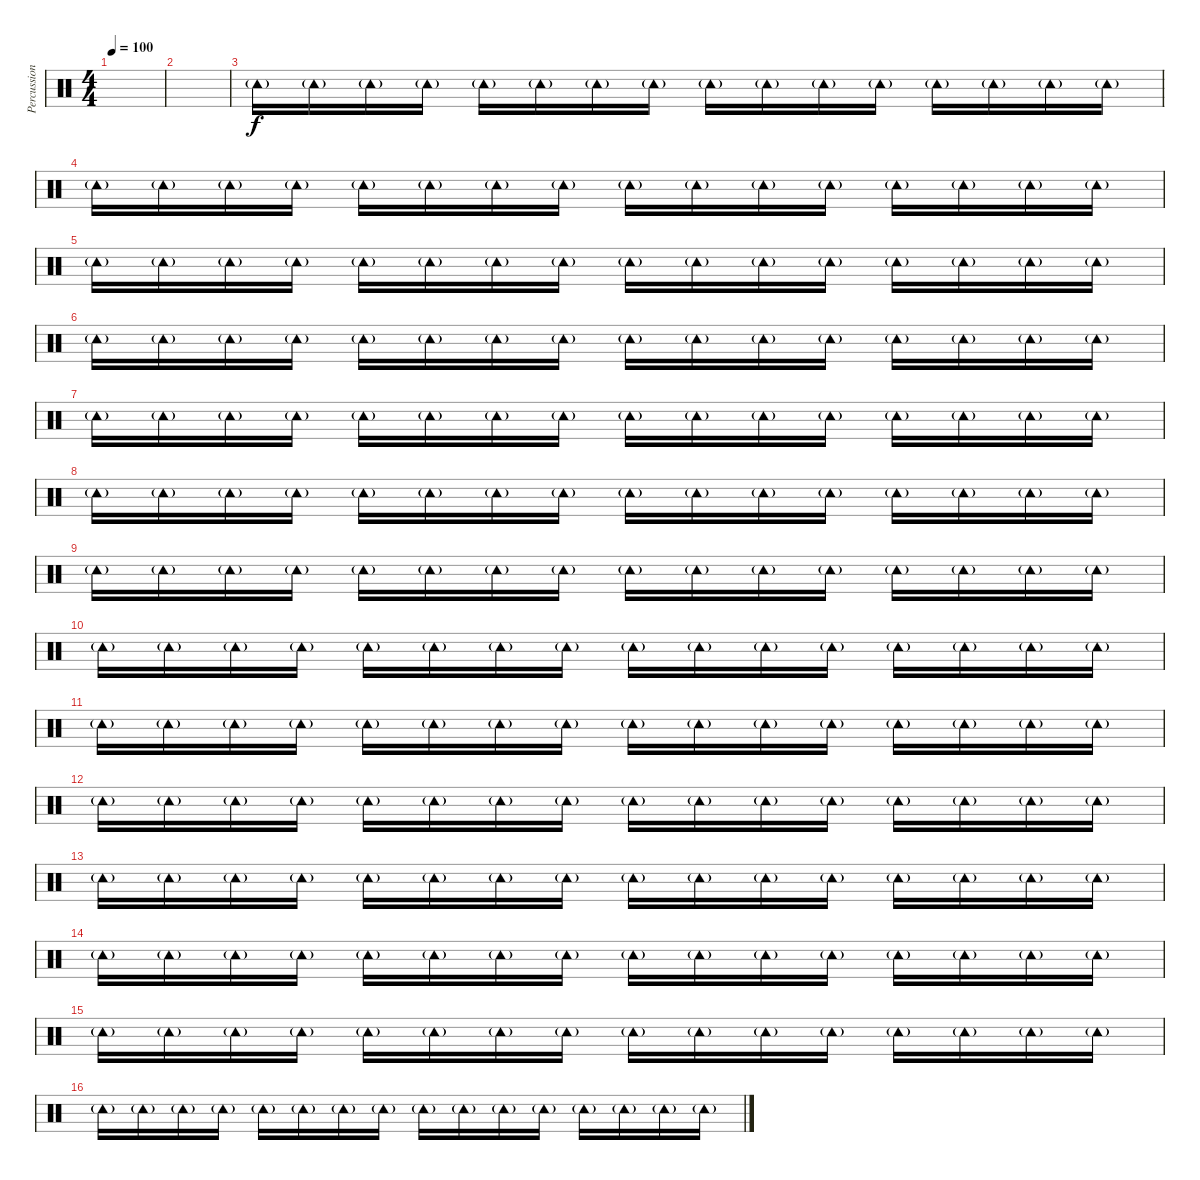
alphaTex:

\track ("Percussion" "Percussion") {instrument percussion}
\staff {score}
\articulation defaults
\ts (4 4)
\tempo 100
\clef neutral
\ks c
|
|
"Tambourine (hit)"{g}.16 "Tambourine (hit)"{g}.16 "Tambourine (hit)"{g}.16 "Tambourine (hit)"{g}.16 "Tambourine (hit)"{g}.16 "Tambourine (hit)"{g}.16 "Tambourine (hit)"{g}.16 "Tambourine (hit)"{g}.16 "Tambourine (hit)"{g}.16 "Tambourine (hit)"{g}.16 "Tambourine (hit)"{g}.16 "Tambourine (hit)"{g}.16 "Tambourine (hit)"{g}.16 "Tambourine (hit)"{g}.16 "Tambourine (hit)"{g}.16 "Tambourine (hit)"{g}.16 |
"Tambourine (hit)"{g}.16 "Tambourine (hit)"{g}.16 "Tambourine (hit)"{g}.16 "Tambourine (hit)"{g}.16 "Tambourine (hit)"{g}.16 "Tambourine (hit)"{g}.16 "Tambourine (hit)"{g}.16 "Tambourine (hit)"{g}.16 "Tambourine (hit)"{g}.16 "Tambourine (hit)"{g}.16 "Tambourine (hit)"{g}.16 "Tambourine (hit)"{g}.16 "Tambourine (hit)"{g}.16 "Tambourine (hit)"{g}.16 "Tambourine (hit)"{g}.16 "Tambourine (hit)"{g}.16 |
"Tambourine (hit)"{g}.16 "Tambourine (hit)"{g}.16 "Tambourine (hit)"{g}.16 "Tambourine (hit)"{g}.16 "Tambourine (hit)"{g}.16 "Tambourine (hit)"{g}.16 "Tambourine (hit)"{g}.16 "Tambourine (hit)"{g}.16 "Tambourine (hit)"{g}.16 "Tambourine (hit)"{g}.16 "Tambourine (hit)"{g}.16 "Tambourine (hit)"{g}.16 "Tambourine (hit)"{g}.16 "Tambourine (hit)"{g}.16 "Tambourine (hit)"{g}.16 "Tambourine (hit)"{g}.16 |
"Tambourine (hit)"{g}.16 "Tambourine (hit)"{g}.16 "Tambourine (hit)"{g}.16 "Tambourine (hit)"{g}.16 "Tambourine (hit)"{g}.16 "Tambourine (hit)"{g}.16 "Tambourine (hit)"{g}.16 "Tambourine (hit)"{g}.16 "Tambourine (hit)"{g}.16 "Tambourine (hit)"{g}.16 "Tambourine (hit)"{g}.16 "Tambourine (hit)"{g}.16 "Tambourine (hit)"{g}.16 "Tambourine (hit)"{g}.16 "Tambourine (hit)"{g}.16 "Tambourine (hit)"{g}.16 |
"Tambourine (hit)"{g}.16 "Tambourine (hit)"{g}.16 "Tambourine (hit)"{g}.16 "Tambourine (hit)"{g}.16 "Tambourine (hit)"{g}.16 "Tambourine (hit)"{g}.16 "Tambourine (hit)"{g}.16 "Tambourine (hit)"{g}.16 "Tambourine (hit)"{g}.16 "Tambourine (hit)"{g}.16 "Tambourine (hit)"{g}.16 "Tambourine (hit)"{g}.16 "Tambourine (hit)"{g}.16 "Tambourine (hit)"{g}.16 "Tambourine (hit)"{g}.16 "Tambourine (hit)"{g}.16 |
"Tambourine (hit)"{g}.16 "Tambourine (hit)"{g}.16 "Tambourine (hit)"{g}.16 "Tambourine (hit)"{g}.16 "Tambourine (hit)"{g}.16 "Tambourine (hit)"{g}.16 "Tambourine (hit)"{g}.16 "Tambourine (hit)"{g}.16 "Tambourine (hit)"{g}.16 "Tambourine (hit)"{g}.16 "Tambourine (hit)"{g}.16 "Tambourine (hit)"{g}.16 "Tambourine (hit)"{g}.16 "Tambourine (hit)"{g}.16 "Tambourine (hit)"{g}.16 "Tambourine (hit)"{g}.16 |
"Tambourine (hit)"{g}.16 "Tambourine (hit)"{g}.16 "Tambourine (hit)"{g}.16 "Tambourine (hit)"{g}.16 "Tambourine (hit)"{g}.16 "Tambourine (hit)"{g}.16 "Tambourine (hit)"{g}.16 "Tambourine (hit)"{g}.16 "Tambourine (hit)"{g}.16 "Tambourine (hit)"{g}.16 "Tambourine (hit)"{g}.16 "Tambourine (hit)"{g}.16 "Tambourine (hit)"{g}.16 "Tambourine (hit)"{g}.16 "Tambourine (hit)"{g}.16 "Tambourine (hit)"{g}.16 |
"Tambourine (hit)"{g}.16 "Tambourine (hit)"{g}.16 "Tambourine (hit)"{g}.16 "Tambourine (hit)"{g}.16 "Tambourine (hit)"{g}.16 "Tambourine (hit)"{g}.16 "Tambourine (hit)"{g}.16 "Tambourine (hit)"{g}.16 "Tambourine (hit)"{g}.16 "Tambourine (hit)"{g}.16 "Tambourine (hit)"{g}.16 "Tambourine (hit)"{g}.16 "Tambourine (hit)"{g}.16 "Tambourine (hit)"{g}.16 "Tambourine (hit)"{g}.16 "Tambourine (hit)"{g}.16 |
"Tambourine (hit)"{g}.16 "Tambourine (hit)"{g}.16 "Tambourine (hit)"{g}.16 "Tambourine (hit)"{g}.16 "Tambourine (hit)"{g}.16 "Tambourine (hit)"{g}.16 "Tambourine (hit)"{g}.16 "Tambourine (hit)"{g}.16 "Tambourine (hit)"{g}.16 "Tambourine (hit)"{g}.16 "Tambourine (hit)"{g}.16 "Tambourine (hit)"{g}.16 "Tambourine (hit)"{g}.16 "Tambourine (hit)"{g}.16 "Tambourine (hit)"{g}.16 "Tambourine (hit)"{g}.16 |
"Tambourine (hit)"{g}.16 "Tambourine (hit)"{g}.16 "Tambourine (hit)"{g}.16 "Tambourine (hit)"{g}.16 "Tambourine (hit)"{g}.16 "Tambourine (hit)"{g}.16 "Tambourine (hit)"{g}.16 "Tambourine (hit)"{g}.16 "Tambourine (hit)"{g}.16 "Tambourine (hit)"{g}.16 "Tambourine (hit)"{g}.16 "Tambourine (hit)"{g}.16 "Tambourine (hit)"{g}.16 "Tambourine (hit)"{g}.16 "Tambourine (hit)"{g}.16 "Tambourine (hit)"{g}.16 |
"Tambourine (hit)"{g}.16 "Tambourine (hit)"{g}.16 "Tambourine (hit)"{g}.16 "Tambourine (hit)"{g}.16 "Tambourine (hit)"{g}.16 "Tambourine (hit)"{g}.16 "Tambourine (hit)"{g}.16 "Tambourine (hit)"{g}.16 "Tambourine (hit)"{g}.16 "Tambourine (hit)"{g}.16 "Tambourine (hit)"{g}.16 "Tambourine (hit)"{g}.16 "Tambourine (hit)"{g}.16 "Tambourine (hit)"{g}.16 "Tambourine (hit)"{g}.16 "Tambourine (hit)"{g}.16 |
"Tambourine (hit)"{g}.16 "Tambourine (hit)"{g}.16 "Tambourine (hit)"{g}.16 "Tambourine (hit)"{g}.16 "Tambourine (hit)"{g}.16 "Tambourine (hit)"{g}.16 "Tambourine (hit)"{g}.16 "Tambourine (hit)"{g}.16 "Tambourine (hit)"{g}.16 "Tambourine (hit)"{g}.16 "Tambourine (hit)"{g}.16 "Tambourine (hit)"{g}.16 "Tambourine (hit)"{g}.16 "Tambourine (hit)"{g}.16 "Tambourine (hit)"{g}.16 "Tambourine (hit)"{g}.16 |
"Tambourine (hit)"{g}.16 "Tambourine (hit)"{g}.16 "Tambourine (hit)"{g}.16 "Tambourine (hit)"{g}.16 "Tambourine (hit)"{g}.16 "Tambourine (hit)"{g}.16 "Tambourine (hit)"{g}.16 "Tambourine (hit)"{g}.16 "Tambourine (hit)"{g}.16 "Tambourine (hit)"{g}.16 "Tambourine (hit)"{g}.16 "Tambourine (hit)"{g}.16 "Tambourine (hit)"{g}.16 "Tambourine (hit)"{g}.16 "Tambourine (hit)"{g}.16 "Tambourine (hit)"{g}.16 |
"Tambourine (hit)"{g}.16 "Tambourine (hit)"{g}.16 "Tambourine (hit)"{g}.16 "Tambourine (hit)"{g}.16 "Tambourine (hit)"{g}.16 "Tambourine (hit)"{g}.16 "Tambourine (hit)"{g}.16 "Tambourine (hit)"{g}.16 "Tambourine (hit)"{g}.16 "Tambourine (hit)"{g}.16 "Tambourine (hit)"{g}.16 "Tambourine (hit)"{g}.16 "Tambourine (hit)"{g}.16 "Tambourine (hit)"{g}.16 "Tambourine (hit)"{g}.16 "Tambourine (hit)"{g}.16
